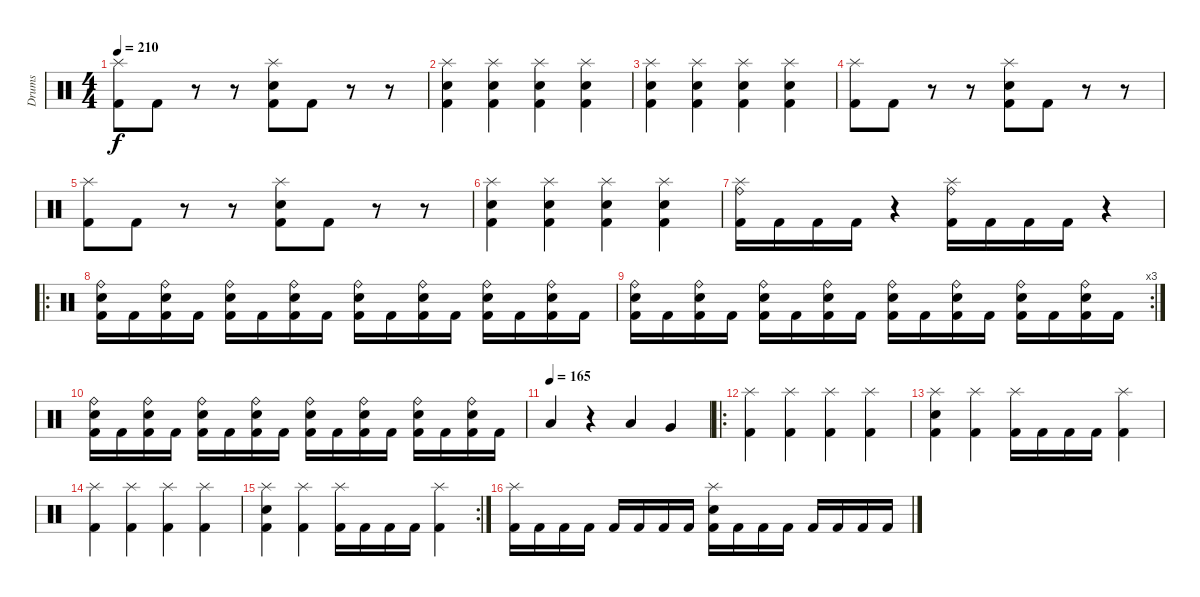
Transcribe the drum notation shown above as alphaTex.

\track ("Drums" "Drums") {instrument percussion}
\staff {score}
\articulation defaults
\ts (4 4)
\tempo 210
\clef neutral
\ks c
("Splash (hit)" "Kick (hit) 2").8{dy f} "Kick (hit) 2".8 r.8 r.8 ("Splash (hit)" "Snare (hit) 2" "Kick (hit) 2").8 "Kick (hit) 2".8 r.8 r.8 |
("Splash (hit)" "Snare (hit) 2" "Kick (hit) 2").4 ("Splash (hit)" "Snare (hit) 2" "Kick (hit) 2").4 ("Splash (hit)" "Snare (hit) 2" "Kick (hit) 2").4 ("Splash (hit)" "Snare (hit) 2" "Kick (hit) 2").4 |
("Splash (hit)" "Snare (hit) 2" "Kick (hit) 2").4 ("Splash (hit)" "Snare (hit) 2" "Kick (hit) 2").4 ("Splash (hit)" "Snare (hit) 2" "Kick (hit) 2").4 ("Splash (hit)" "Snare (hit) 2" "Kick (hit) 2").4 |
("Splash (hit)" "Kick (hit) 2").8 "Kick (hit) 2".8 r.8 r.8 ("Splash (hit)" "Snare (hit) 2" "Kick (hit) 2").8 "Kick (hit) 2".8 r.8 r.8 |
("Splash (hit)" "Kick (hit) 2").8 "Kick (hit) 2".8 r.8 r.8 ("Splash (hit)" "Snare (hit) 2" "Kick (hit) 2").8 "Kick (hit) 2".8 r.8 r.8 |
("Splash (hit)" "Snare (hit) 2" "Kick (hit) 2").4 ("Splash (hit)" "Snare (hit) 2" "Kick (hit) 2").4 ("Splash (hit)" "Snare (hit) 2" "Kick (hit) 2").4 ("Splash (hit)" "Snare (hit) 2" "Kick (hit) 2").4 |
("Splash (hit)" "Ride (bell)" "Kick (hit) 2").16 "Kick (hit) 2".16 "Kick (hit) 2".16 "Kick (hit) 2".16 r.4 ("Splash (hit)" "Ride (bell)" "Kick (hit) 2").16 "Kick (hit) 2".16 "Kick (hit) 2".16 "Kick (hit) 2".16 r.4 |
\ro
("Ride (bell)" "Snare (hit) 2" "Kick (hit) 2").16 "Kick (hit) 2".16 ("Ride (bell)" "Snare (hit) 2" "Kick (hit) 2").16 "Kick (hit) 2".16 ("Ride (bell)" "Snare (hit) 2" "Kick (hit) 2").16 "Kick (hit) 2".16 ("Ride (bell)" "Snare (hit) 2" "Kick (hit) 2").16 "Kick (hit) 2".16 ("Ride (bell)" "Snare (hit) 2" "Kick (hit) 2").16 "Kick (hit) 2".16 ("Ride (bell)" "Snare (hit) 2" "Kick (hit) 2").16 "Kick (hit) 2".16 ("Ride (bell)" "Snare (hit) 2" "Kick (hit) 2").16 "Kick (hit) 2".16 ("Ride (bell)" "Snare (hit) 2" "Kick (hit) 2").16 "Kick (hit) 2".16 |
\rc 3
("Ride (bell)" "Snare (hit) 2" "Kick (hit) 2").16 "Kick (hit) 2".16 ("Ride (bell)" "Snare (hit) 2" "Kick (hit) 2").16 "Kick (hit) 2".16 ("Ride (bell)" "Snare (hit) 2" "Kick (hit) 2").16 "Kick (hit) 2".16 ("Ride (bell)" "Snare (hit) 2" "Kick (hit) 2").16 "Kick (hit) 2".16 ("Ride (bell)" "Snare (hit) 2" "Kick (hit) 2").16 "Kick (hit) 2".16 ("Ride (bell)" "Snare (hit) 2" "Kick (hit) 2").16 "Kick (hit) 2".16 ("Ride (bell)" "Snare (hit) 2" "Kick (hit) 2").16 "Kick (hit) 2".16 ("Ride (bell)" "Snare (hit) 2" "Kick (hit) 2").16 "Kick (hit) 2".16 |
("Ride (bell)" "Snare (hit) 2" "Kick (hit) 2").16 "Kick (hit) 2".16 ("Ride (bell)" "Snare (hit) 2" "Kick (hit) 2").16 "Kick (hit) 2".16 ("Ride (bell)" "Snare (hit) 2" "Kick (hit) 2").16 "Kick (hit) 2".16 ("Ride (bell)" "Snare (hit) 2" "Kick (hit) 2").16 "Kick (hit) 2".16 ("Ride (bell)" "Snare (hit) 2" "Kick (hit) 2").16 "Kick (hit) 2".16 ("Ride (bell)" "Snare (hit) 2" "Kick (hit) 2").16 "Kick (hit) 2".16 ("Ride (bell)" "Snare (hit) 2" "Kick (hit) 2").16 "Kick (hit) 2".16 ("Ride (bell)" "Snare (hit) 2" "Kick (hit) 2").16 "Kick (hit) 2".16 |
\tempo (165)
"Low Floor Tom (hit)".4 r.4 "Low Floor Tom (hit)".4 "Very Low Tom (hit)".4 |
\ro
("Splash (hit)" "Kick (hit) 2").4 ("Splash (hit)" "Kick (hit) 2").4 ("Splash (hit)" "Kick (hit) 2").4 ("Splash (hit)" "Kick (hit) 2").4 |
("Splash (hit)" "Snare (hit) 2" "Kick (hit) 2").4 ("Splash (hit)" "Kick (hit) 2").4 ("Splash (hit)" "Kick (hit) 2").16 "Kick (hit) 2".16 "Kick (hit) 2".16 "Kick (hit) 2".16 ("Splash (hit)" "Kick (hit) 2").4 |
("Splash (hit)" "Kick (hit) 2").4 ("Splash (hit)" "Kick (hit) 2").4 ("Splash (hit)" "Kick (hit) 2").4 ("Splash (hit)" "Kick (hit) 2").4 |
\rc 2
("Splash (hit)" "Snare (hit) 2" "Kick (hit) 2").4 ("Splash (hit)" "Kick (hit) 2").4 ("Splash (hit)" "Kick (hit) 2").16 "Kick (hit) 2".16 "Kick (hit) 2".16 "Kick (hit) 2".16 ("Splash (hit)" "Kick (hit) 2").4 |
("Splash (hit)" "Kick (hit) 2").16 "Kick (hit) 2".16 "Kick (hit) 2".16 "Kick (hit) 2".16 "Kick (hit) 2".16 "Kick (hit) 2".16 "Kick (hit) 2".16 "Kick (hit) 2".16 ("Splash (hit)" "Snare (hit) 2" "Kick (hit) 2").16 "Kick (hit) 2".16 "Kick (hit) 2".16 "Kick (hit) 2".16 "Kick (hit) 2".16 "Kick (hit) 2".16 "Kick (hit) 2".16 "Kick (hit) 2".16
